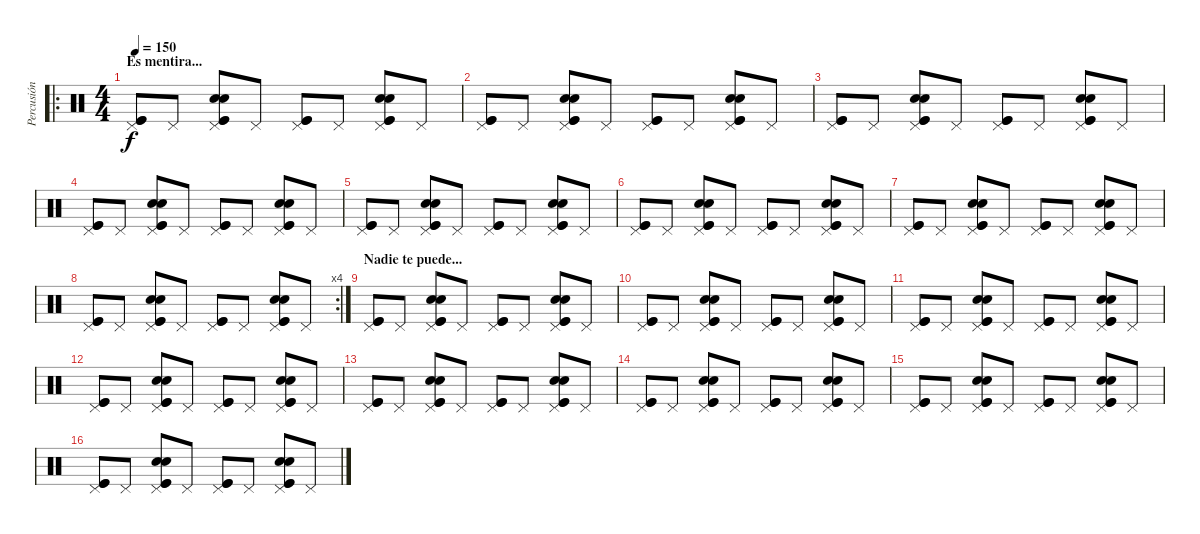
\track ("Percusión" "Percusión") {instrument percussion}
\staff {score}
\articulation defaults
\ro
\ts (4 4)
\section ("" "Es mentira...")
\tempo 150
\clef neutral
\ks c
("Pedal Hi-Hat (hit)" "Kick (hit)" "Kick (hit)").8{dy f} "Pedal Hi-Hat (hit)".8 ("Pedal Hi-Hat (hit)" "Snare (hit) 2" "Snare (hit) 2" "Kick (hit)" "Kick (hit)").8 "Pedal Hi-Hat (hit)".8 ("Pedal Hi-Hat (hit)" "Kick (hit)" "Kick (hit)").8 "Pedal Hi-Hat (hit)".8 ("Pedal Hi-Hat (hit)" "Snare (hit) 2" "Snare (hit) 2" "Kick (hit)" "Kick (hit)").8 "Pedal Hi-Hat (hit)".8 |
("Pedal Hi-Hat (hit)" "Kick (hit)" "Kick (hit)").8 "Pedal Hi-Hat (hit)".8 ("Pedal Hi-Hat (hit)" "Snare (hit) 2" "Snare (hit) 2" "Kick (hit)" "Kick (hit)").8 "Pedal Hi-Hat (hit)".8 ("Pedal Hi-Hat (hit)" "Kick (hit)" "Kick (hit)").8 "Pedal Hi-Hat (hit)".8 ("Pedal Hi-Hat (hit)" "Snare (hit) 2" "Snare (hit) 2" "Kick (hit)" "Kick (hit)").8 "Pedal Hi-Hat (hit)".8 |
("Pedal Hi-Hat (hit)" "Kick (hit)" "Kick (hit)").8 "Pedal Hi-Hat (hit)".8 ("Pedal Hi-Hat (hit)" "Snare (hit) 2" "Snare (hit) 2" "Kick (hit)" "Kick (hit)").8 "Pedal Hi-Hat (hit)".8 ("Pedal Hi-Hat (hit)" "Kick (hit)" "Kick (hit)").8 "Pedal Hi-Hat (hit)".8 ("Pedal Hi-Hat (hit)" "Snare (hit) 2" "Snare (hit) 2" "Kick (hit)" "Kick (hit)").8 "Pedal Hi-Hat (hit)".8 |
("Pedal Hi-Hat (hit)" "Kick (hit)" "Kick (hit)").8 "Pedal Hi-Hat (hit)".8 ("Pedal Hi-Hat (hit)" "Snare (hit) 2" "Snare (hit) 2" "Kick (hit)" "Kick (hit)").8 "Pedal Hi-Hat (hit)".8 ("Pedal Hi-Hat (hit)" "Kick (hit)" "Kick (hit)").8 "Pedal Hi-Hat (hit)".8 ("Pedal Hi-Hat (hit)" "Snare (hit) 2" "Snare (hit) 2" "Kick (hit)" "Kick (hit)").8 "Pedal Hi-Hat (hit)".8 |
("Pedal Hi-Hat (hit)" "Kick (hit)" "Kick (hit)").8 "Pedal Hi-Hat (hit)".8 ("Pedal Hi-Hat (hit)" "Snare (hit) 2" "Snare (hit) 2" "Kick (hit)" "Kick (hit)").8 "Pedal Hi-Hat (hit)".8 ("Pedal Hi-Hat (hit)" "Kick (hit)" "Kick (hit)").8 "Pedal Hi-Hat (hit)".8 ("Pedal Hi-Hat (hit)" "Snare (hit) 2" "Snare (hit) 2" "Kick (hit)" "Kick (hit)").8 "Pedal Hi-Hat (hit)".8 |
("Pedal Hi-Hat (hit)" "Kick (hit)" "Kick (hit)").8 "Pedal Hi-Hat (hit)".8 ("Pedal Hi-Hat (hit)" "Snare (hit) 2" "Snare (hit) 2" "Kick (hit)" "Kick (hit)").8 "Pedal Hi-Hat (hit)".8 ("Pedal Hi-Hat (hit)" "Kick (hit)" "Kick (hit)").8 "Pedal Hi-Hat (hit)".8 ("Pedal Hi-Hat (hit)" "Snare (hit) 2" "Snare (hit) 2" "Kick (hit)" "Kick (hit)").8 "Pedal Hi-Hat (hit)".8 |
("Pedal Hi-Hat (hit)" "Kick (hit)" "Kick (hit)").8 "Pedal Hi-Hat (hit)".8 ("Pedal Hi-Hat (hit)" "Snare (hit) 2" "Snare (hit) 2" "Kick (hit)" "Kick (hit)").8 "Pedal Hi-Hat (hit)".8 ("Pedal Hi-Hat (hit)" "Kick (hit)" "Kick (hit)").8 "Pedal Hi-Hat (hit)".8 ("Pedal Hi-Hat (hit)" "Snare (hit) 2" "Snare (hit) 2" "Kick (hit)" "Kick (hit)").8 "Pedal Hi-Hat (hit)".8 |
\rc 4
("Pedal Hi-Hat (hit)" "Kick (hit)" "Kick (hit)").8 "Pedal Hi-Hat (hit)".8 ("Pedal Hi-Hat (hit)" "Snare (hit) 2" "Snare (hit) 2" "Kick (hit)" "Kick (hit)").8 "Pedal Hi-Hat (hit)".8 ("Pedal Hi-Hat (hit)" "Kick (hit)" "Kick (hit)").8 "Pedal Hi-Hat (hit)".8 ("Pedal Hi-Hat (hit)" "Snare (hit) 2" "Snare (hit) 2" "Kick (hit)" "Kick (hit)").8 "Pedal Hi-Hat (hit)".8 |
\section ("" "Nadie te puede...")
("Pedal Hi-Hat (hit)" "Kick (hit)" "Kick (hit)").8 "Pedal Hi-Hat (hit)".8 ("Pedal Hi-Hat (hit)" "Snare (hit) 2" "Snare (hit) 2" "Kick (hit)" "Kick (hit)").8 "Pedal Hi-Hat (hit)".8 ("Pedal Hi-Hat (hit)" "Kick (hit)" "Kick (hit)").8 "Pedal Hi-Hat (hit)".8 ("Pedal Hi-Hat (hit)" "Snare (hit) 2" "Snare (hit) 2" "Kick (hit)" "Kick (hit)").8 "Pedal Hi-Hat (hit)".8 |
("Pedal Hi-Hat (hit)" "Kick (hit)" "Kick (hit)").8 "Pedal Hi-Hat (hit)".8 ("Pedal Hi-Hat (hit)" "Snare (hit) 2" "Snare (hit) 2" "Kick (hit)" "Kick (hit)").8 "Pedal Hi-Hat (hit)".8 ("Pedal Hi-Hat (hit)" "Kick (hit)" "Kick (hit)").8 "Pedal Hi-Hat (hit)".8 ("Pedal Hi-Hat (hit)" "Snare (hit) 2" "Snare (hit) 2" "Kick (hit)" "Kick (hit)").8 "Pedal Hi-Hat (hit)".8 |
("Pedal Hi-Hat (hit)" "Kick (hit)" "Kick (hit)").8 "Pedal Hi-Hat (hit)".8 ("Pedal Hi-Hat (hit)" "Snare (hit) 2" "Snare (hit) 2" "Kick (hit)" "Kick (hit)").8 "Pedal Hi-Hat (hit)".8 ("Pedal Hi-Hat (hit)" "Kick (hit)" "Kick (hit)").8 "Pedal Hi-Hat (hit)".8 ("Pedal Hi-Hat (hit)" "Snare (hit) 2" "Snare (hit) 2" "Kick (hit)" "Kick (hit)").8 "Pedal Hi-Hat (hit)".8 |
("Pedal Hi-Hat (hit)" "Kick (hit)" "Kick (hit)").8 "Pedal Hi-Hat (hit)".8 ("Pedal Hi-Hat (hit)" "Snare (hit) 2" "Snare (hit) 2" "Kick (hit)" "Kick (hit)").8 "Pedal Hi-Hat (hit)".8 ("Pedal Hi-Hat (hit)" "Kick (hit)" "Kick (hit)").8 "Pedal Hi-Hat (hit)".8 ("Pedal Hi-Hat (hit)" "Snare (hit) 2" "Snare (hit) 2" "Kick (hit)" "Kick (hit)").8 "Pedal Hi-Hat (hit)".8 |
("Pedal Hi-Hat (hit)" "Kick (hit)" "Kick (hit)").8 "Pedal Hi-Hat (hit)".8 ("Pedal Hi-Hat (hit)" "Snare (hit) 2" "Snare (hit) 2" "Kick (hit)" "Kick (hit)").8 "Pedal Hi-Hat (hit)".8 ("Pedal Hi-Hat (hit)" "Kick (hit)" "Kick (hit)").8 "Pedal Hi-Hat (hit)".8 ("Pedal Hi-Hat (hit)" "Snare (hit) 2" "Snare (hit) 2" "Kick (hit)" "Kick (hit)").8 "Pedal Hi-Hat (hit)".8 |
("Pedal Hi-Hat (hit)" "Kick (hit)" "Kick (hit)").8 "Pedal Hi-Hat (hit)".8 ("Pedal Hi-Hat (hit)" "Snare (hit) 2" "Snare (hit) 2" "Kick (hit)" "Kick (hit)").8 "Pedal Hi-Hat (hit)".8 ("Pedal Hi-Hat (hit)" "Kick (hit)" "Kick (hit)").8 "Pedal Hi-Hat (hit)".8 ("Pedal Hi-Hat (hit)" "Snare (hit) 2" "Snare (hit) 2" "Kick (hit)" "Kick (hit)").8 "Pedal Hi-Hat (hit)".8 |
("Pedal Hi-Hat (hit)" "Kick (hit)" "Kick (hit)").8 "Pedal Hi-Hat (hit)".8 ("Pedal Hi-Hat (hit)" "Snare (hit) 2" "Snare (hit) 2" "Kick (hit)" "Kick (hit)").8 "Pedal Hi-Hat (hit)".8 ("Pedal Hi-Hat (hit)" "Kick (hit)" "Kick (hit)").8 "Pedal Hi-Hat (hit)".8 ("Pedal Hi-Hat (hit)" "Snare (hit) 2" "Snare (hit) 2" "Kick (hit)" "Kick (hit)").8 "Pedal Hi-Hat (hit)".8 |
("Pedal Hi-Hat (hit)" "Kick (hit)" "Kick (hit)").8 "Pedal Hi-Hat (hit)".8 ("Pedal Hi-Hat (hit)" "Snare (hit) 2" "Snare (hit) 2" "Kick (hit)" "Kick (hit)").8 "Pedal Hi-Hat (hit)".8 ("Pedal Hi-Hat (hit)" "Kick (hit)" "Kick (hit)").8 "Pedal Hi-Hat (hit)".8 ("Pedal Hi-Hat (hit)" "Snare (hit) 2" "Snare (hit) 2" "Kick (hit)" "Kick (hit)").8 "Pedal Hi-Hat (hit)".8
